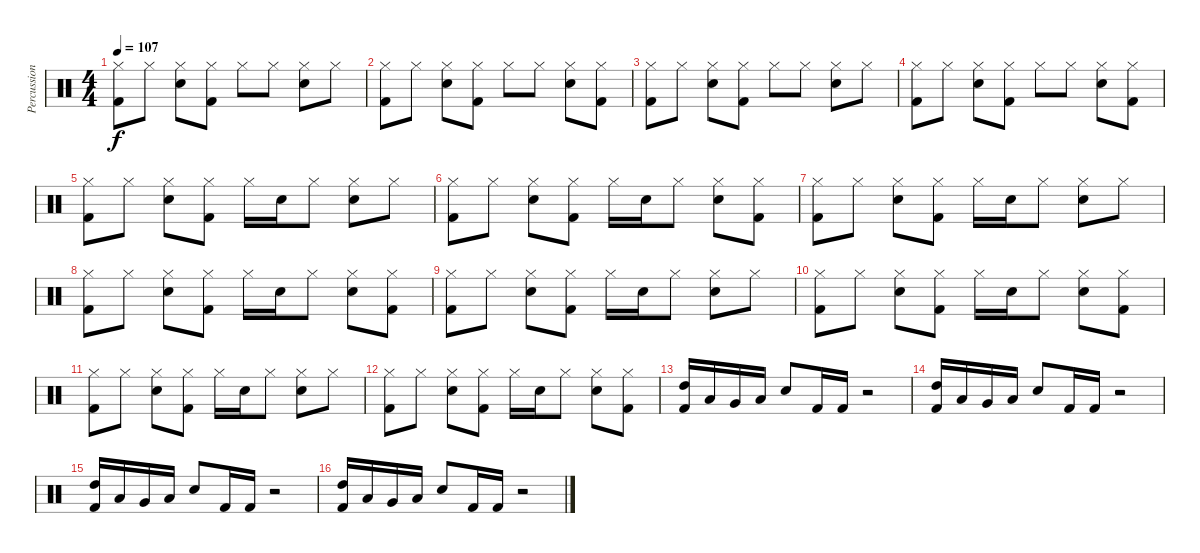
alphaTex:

\track ("Percussion" "Percussion") {instrument percussion}
\staff {score}
\articulation defaults
\ts (4 4)
\tempo 107
\clef neutral
\ks c
("Hi-Hat (closed)" "Kick (hit) 2").8{dy f} "Hi-Hat (closed)".8 ("Hi-Hat (closed)" "Electric Snare (hit)").8 ("Hi-Hat (closed)" "Kick (hit) 2").8 "Hi-Hat (closed)".8 "Hi-Hat (closed)".8 ("Hi-Hat (closed)" "Electric Snare (hit)").8 "Hi-Hat (closed)".8 |
("Hi-Hat (closed)" "Kick (hit) 2").8 "Hi-Hat (closed)".8 ("Hi-Hat (closed)" "Electric Snare (hit)").8 ("Hi-Hat (closed)" "Kick (hit) 2").8 "Hi-Hat (closed)".8 "Hi-Hat (closed)".8 ("Hi-Hat (closed)" "Electric Snare (hit)").8 ("Hi-Hat (closed)" "Kick (hit) 2").8 |
("Hi-Hat (closed)" "Kick (hit) 2").8 "Hi-Hat (closed)".8 ("Hi-Hat (closed)" "Electric Snare (hit)").8 ("Hi-Hat (closed)" "Kick (hit) 2").8 "Hi-Hat (closed)".8 "Hi-Hat (closed)".8 ("Hi-Hat (closed)" "Electric Snare (hit)").8 "Hi-Hat (closed)".8 |
("Hi-Hat (closed)" "Kick (hit) 2").8 "Hi-Hat (closed)".8 ("Hi-Hat (closed)" "Electric Snare (hit)").8 ("Hi-Hat (closed)" "Kick (hit) 2").8 "Hi-Hat (closed)".8 "Hi-Hat (closed)".8 ("Hi-Hat (closed)" "Electric Snare (hit)").8 ("Hi-Hat (closed)" "Kick (hit) 2").8 |
("Hi-Hat (closed)" "Kick (hit) 2").8 "Hi-Hat (closed)".8 ("Hi-Hat (closed)" "Electric Snare (hit)").8 ("Hi-Hat (closed)" "Kick (hit) 2").8 "Hi-Hat (closed)".16 "Electric Snare (hit)".16 "Hi-Hat (closed)".8 ("Hi-Hat (closed)" "Electric Snare (hit)").8 "Hi-Hat (closed)".8 |
("Hi-Hat (closed)" "Kick (hit) 2").8 "Hi-Hat (closed)".8 ("Hi-Hat (closed)" "Electric Snare (hit)").8 ("Hi-Hat (closed)" "Kick (hit) 2").8 "Hi-Hat (closed)".16 "Electric Snare (hit)".16 "Hi-Hat (closed)".8 ("Hi-Hat (closed)" "Electric Snare (hit)").8 ("Hi-Hat (closed)" "Kick (hit) 2").8 |
("Hi-Hat (closed)" "Kick (hit) 2").8 "Hi-Hat (closed)".8 ("Hi-Hat (closed)" "Electric Snare (hit)").8 ("Hi-Hat (closed)" "Kick (hit) 2").8 "Hi-Hat (closed)".16 "Electric Snare (hit)".16 "Hi-Hat (closed)".8 ("Hi-Hat (closed)" "Electric Snare (hit)").8 "Hi-Hat (closed)".8 |
("Hi-Hat (closed)" "Kick (hit) 2").8 "Hi-Hat (closed)".8 ("Hi-Hat (closed)" "Electric Snare (hit)").8 ("Hi-Hat (closed)" "Kick (hit) 2").8 "Hi-Hat (closed)".16 "Electric Snare (hit)".16 "Hi-Hat (closed)".8 ("Hi-Hat (closed)" "Electric Snare (hit)").8 ("Hi-Hat (closed)" "Kick (hit) 2").8 |
("Hi-Hat (closed)" "Kick (hit) 2").8 "Hi-Hat (closed)".8 ("Hi-Hat (closed)" "Electric Snare (hit)").8 ("Hi-Hat (closed)" "Kick (hit) 2").8 "Hi-Hat (closed)".16 "Electric Snare (hit)".16 "Hi-Hat (closed)".8 ("Hi-Hat (closed)" "Electric Snare (hit)").8 "Hi-Hat (closed)".8 |
("Hi-Hat (closed)" "Kick (hit) 2").8 "Hi-Hat (closed)".8 ("Hi-Hat (closed)" "Electric Snare (hit)").8 ("Hi-Hat (closed)" "Kick (hit) 2").8 "Hi-Hat (closed)".16 "Electric Snare (hit)".16 "Hi-Hat (closed)".8 ("Hi-Hat (closed)" "Electric Snare (hit)").8 ("Hi-Hat (closed)" "Kick (hit) 2").8 |
("Hi-Hat (closed)" "Kick (hit) 2").8 "Hi-Hat (closed)".8 ("Hi-Hat (closed)" "Electric Snare (hit)").8 ("Hi-Hat (closed)" "Kick (hit) 2").8 "Hi-Hat (closed)".16 "Electric Snare (hit)".16 "Hi-Hat (closed)".8 ("Hi-Hat (closed)" "Electric Snare (hit)").8 "Hi-Hat (closed)".8 |
("Hi-Hat (closed)" "Kick (hit) 2").8 "Hi-Hat (closed)".8 ("Hi-Hat (closed)" "Electric Snare (hit)").8 ("Hi-Hat (closed)" "Kick (hit) 2").8 "Hi-Hat (closed)".16 "Electric Snare (hit)".16 "Hi-Hat (closed)".8 ("Hi-Hat (closed)" "Electric Snare (hit)").8 ("Hi-Hat (closed)" "Kick (hit) 2").8 |
("High Tom (hit)" "Kick (hit) 2").16 "Low Tom (hit)".16 "Very Low Tom (hit)".16 "Low Floor Tom (hit)".16 "Electric Snare (hit)".8 "Kick (hit) 2".16 "Kick (hit) 2".16 r.2 |
("High Tom (hit)" "Kick (hit) 2").16 "Low Tom (hit)".16 "Very Low Tom (hit)".16 "Low Floor Tom (hit)".16 "Electric Snare (hit)".8 "Kick (hit) 2".16 "Kick (hit) 2".16 r.2 |
("High Tom (hit)" "Kick (hit) 2").16 "Low Tom (hit)".16 "Very Low Tom (hit)".16 "Low Floor Tom (hit)".16 "Electric Snare (hit)".8 "Kick (hit) 2".16 "Kick (hit) 2".16 r.2 |
("High Tom (hit)" "Kick (hit) 2").16 "Low Tom (hit)".16 "Very Low Tom (hit)".16 "Low Floor Tom (hit)".16 "Electric Snare (hit)".8 "Kick (hit) 2".16 "Kick (hit) 2".16 r.2
